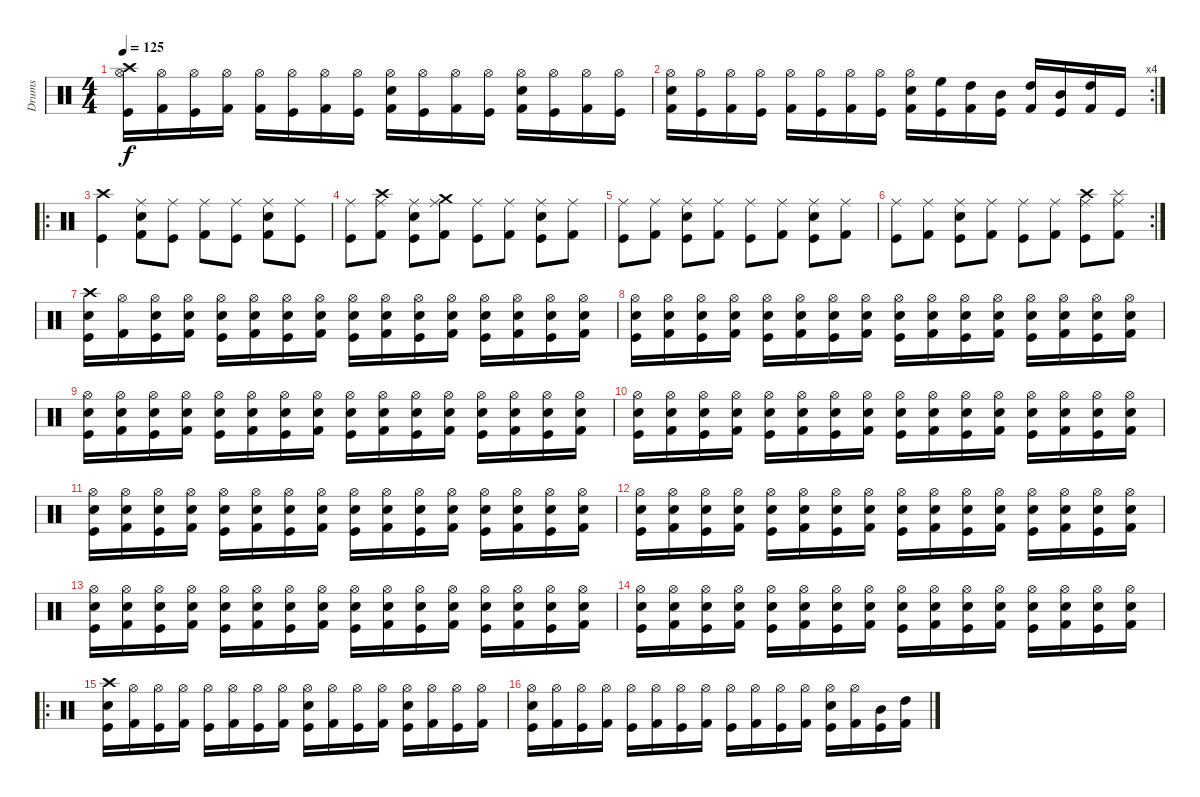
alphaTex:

\track ("Drums" "Drums") {instrument percussion}
\staff {score}
\articulation defaults
\ts (4 4)
\tempo 125
\clef neutral
\ks c
("Kick (hit)" "Hi-Hat (open)" "Crash high (hit)").16{dy f} ("Kick (hit) 2" "Hi-Hat (open)").16 ("Kick (hit)" "Hi-Hat (open)").16 ("Kick (hit) 2" "Hi-Hat (open)").16 ("Kick (hit) 2" "Hi-Hat (open)").16 ("Kick (hit)" "Hi-Hat (open)").16 ("Kick (hit) 2" "Hi-Hat (open)").16 ("Kick (hit)" "Hi-Hat (open)").16 ("Kick (hit) 2" "Hi-Hat (open)" "Electric Snare (hit)").16 ("Kick (hit)" "Hi-Hat (open)").16 ("Kick (hit) 2" "Hi-Hat (open)").16 ("Kick (hit)" "Hi-Hat (open)").16 ("Kick (hit) 2" "Hi-Hat (open)" "Electric Snare (hit)").16 ("Kick (hit)" "Hi-Hat (open)").16 ("Kick (hit) 2" "Hi-Hat (open)").16 ("Kick (hit)" "Hi-Hat (open)").16 |
\rc 4
("Kick (hit) 2" "Hi-Hat (open)" "Electric Snare (hit)").16 ("Kick (hit)" "Hi-Hat (open)").16 ("Kick (hit) 2" "Hi-Hat (open)").16 ("Kick (hit)" "Hi-Hat (open)").16 ("Kick (hit) 2" "Hi-Hat (open)").16 ("Kick (hit)" "Hi-Hat (open)").16 ("Kick (hit) 2" "Hi-Hat (open)").16 ("Kick (hit)" "Hi-Hat (open)").16 ("Kick (hit) 2" "Hi-Hat (open)" "Electric Snare (hit)").16 ("Kick (hit)" "High Floor Tom (hit)").16 ("Kick (hit) 2" "High Tom (hit)").16 ("Kick (hit)" "Mid Tom (hit)").16 ("Kick (hit) 2" "High Tom (hit)").16 ("Kick (hit)" "Mid Tom (hit)").16 ("Kick (hit) 2" "High Tom (hit)").16 "Kick (hit)".16 |
\ro
("Kick (hit)" "Crash high (hit)").4 ("Kick (hit) 2" "Ride (middle)" "Electric Snare (hit)").8 ("Kick (hit)" "Ride (middle)").8 ("Kick (hit) 2" "Ride (middle)").8 ("Kick (hit)" "Ride (middle)").8 ("Kick (hit) 2" "Ride (middle)" "Electric Snare (hit)").8 ("Kick (hit)" "Ride (middle)").8 |
("Kick (hit)" "Ride (middle)").8 ("Kick (hit) 2" "Ride (middle)" "Crash high (hit)").8 ("Kick (hit)" "Ride (middle)" "Electric Snare (hit)").8 ("Kick (hit) 2" "Ride (middle)" "Crash medium (hit)").8 ("Kick (hit)" "Ride (middle)").8 ("Kick (hit) 2" "Ride (middle)").8 ("Kick (hit)" "Ride (middle)" "Electric Snare (hit)").8 ("Kick (hit) 2" "Ride (middle)").8 |
("Kick (hit)" "Ride (middle)").8 ("Kick (hit) 2" "Ride (middle)").8 ("Kick (hit)" "Ride (middle)" "Electric Snare (hit)").8 ("Kick (hit) 2" "Ride (middle)").8 ("Kick (hit)" "Ride (middle)").8 ("Kick (hit) 2" "Ride (middle)").8 ("Kick (hit)" "Ride (middle)" "Electric Snare (hit)").8 ("Kick (hit) 2" "Ride (middle)").8 |
\rc 2
("Kick (hit)" "Ride (middle)").8 ("Kick (hit) 2" "Ride (middle)").8 ("Kick (hit)" "Ride (middle)" "Electric Snare (hit)").8 ("Kick (hit) 2" "Ride (middle)").8 ("Kick (hit)" "Ride (middle)").8 ("Kick (hit) 2" "Ride (middle)").8 ("Kick (hit)" "Ride (middle)" "Crash high (hit)").8 ("Kick (hit) 2" "Ride (middle)" "Splash (hit)").8 |
("Kick (hit)" "Crash high (hit)" "Electric Snare (hit)").16 ("Kick (hit) 2" "Hi-Hat (open)").16 ("Kick (hit)" "Hi-Hat (open)" "Electric Snare (hit)").16 ("Kick (hit) 2" "Hi-Hat (open)" "Electric Snare (hit)").16 ("Kick (hit)" "Hi-Hat (open)" "Electric Snare (hit)").16 ("Kick (hit) 2" "Hi-Hat (open)" "Electric Snare (hit)").16 ("Kick (hit)" "Hi-Hat (open)" "Electric Snare (hit)").16 ("Kick (hit) 2" "Hi-Hat (open)" "Electric Snare (hit)").16 ("Kick (hit)" "Hi-Hat (open)" "Electric Snare (hit)").16 ("Kick (hit) 2" "Hi-Hat (open)" "Electric Snare (hit)").16 ("Kick (hit)" "Hi-Hat (open)" "Electric Snare (hit)").16 ("Kick (hit) 2" "Hi-Hat (open)" "Electric Snare (hit)").16 ("Kick (hit)" "Hi-Hat (open)" "Electric Snare (hit)").16 ("Kick (hit) 2" "Hi-Hat (open)" "Electric Snare (hit)").16 ("Kick (hit)" "Hi-Hat (open)" "Electric Snare (hit)").16 ("Kick (hit) 2" "Hi-Hat (open)" "Electric Snare (hit)").16 |
("Kick (hit)" "Hi-Hat (open)" "Electric Snare (hit)").16 ("Kick (hit) 2" "Hi-Hat (open)" "Electric Snare (hit)").16 ("Kick (hit)" "Hi-Hat (open)" "Electric Snare (hit)").16 ("Kick (hit) 2" "Hi-Hat (open)" "Electric Snare (hit)").16 ("Kick (hit)" "Hi-Hat (open)" "Electric Snare (hit)").16 ("Kick (hit) 2" "Hi-Hat (open)" "Electric Snare (hit)").16 ("Kick (hit)" "Hi-Hat (open)" "Electric Snare (hit)").16 ("Kick (hit) 2" "Hi-Hat (open)" "Electric Snare (hit)").16 ("Kick (hit)" "Hi-Hat (open)" "Electric Snare (hit)").16 ("Kick (hit) 2" "Hi-Hat (open)" "Electric Snare (hit)").16 ("Kick (hit)" "Hi-Hat (open)" "Electric Snare (hit)").16 ("Kick (hit) 2" "Hi-Hat (open)" "Electric Snare (hit)").16 ("Kick (hit)" "Hi-Hat (open)" "Electric Snare (hit)").16 ("Kick (hit) 2" "Hi-Hat (open)" "Electric Snare (hit)").16 ("Kick (hit)" "Hi-Hat (open)" "Electric Snare (hit)").16 ("Kick (hit) 2" "Hi-Hat (open)" "Electric Snare (hit)").16 |
("Kick (hit)" "Hi-Hat (open)" "Electric Snare (hit)").16 ("Kick (hit) 2" "Hi-Hat (open)" "Electric Snare (hit)").16 ("Kick (hit)" "Hi-Hat (open)" "Electric Snare (hit)").16 ("Kick (hit) 2" "Hi-Hat (open)" "Electric Snare (hit)").16 ("Kick (hit)" "Hi-Hat (open)" "Electric Snare (hit)").16 ("Kick (hit) 2" "Hi-Hat (open)" "Electric Snare (hit)").16 ("Kick (hit)" "Hi-Hat (open)" "Electric Snare (hit)").16 ("Kick (hit) 2" "Hi-Hat (open)" "Electric Snare (hit)").16 ("Kick (hit)" "Hi-Hat (open)" "Electric Snare (hit)").16 ("Kick (hit) 2" "Hi-Hat (open)" "Electric Snare (hit)").16 ("Kick (hit)" "Hi-Hat (open)" "Electric Snare (hit)").16 ("Kick (hit) 2" "Hi-Hat (open)" "Electric Snare (hit)").16 ("Kick (hit)" "Hi-Hat (open)" "Electric Snare (hit)").16 ("Kick (hit) 2" "Hi-Hat (open)" "Electric Snare (hit)").16 ("Kick (hit)" "Hi-Hat (open)" "Electric Snare (hit)").16 ("Kick (hit) 2" "Hi-Hat (open)" "Electric Snare (hit)").16 |
("Kick (hit)" "Hi-Hat (open)" "Electric Snare (hit)").16 ("Kick (hit) 2" "Hi-Hat (open)" "Electric Snare (hit)").16 ("Kick (hit)" "Hi-Hat (open)" "Electric Snare (hit)").16 ("Kick (hit) 2" "Hi-Hat (open)" "Electric Snare (hit)").16 ("Kick (hit)" "Hi-Hat (open)" "Electric Snare (hit)").16 ("Kick (hit) 2" "Hi-Hat (open)" "Electric Snare (hit)").16 ("Kick (hit)" "Hi-Hat (open)" "Electric Snare (hit)").16 ("Kick (hit) 2" "Hi-Hat (open)" "Electric Snare (hit)").16 ("Kick (hit)" "Hi-Hat (open)" "Electric Snare (hit)").16 ("Kick (hit) 2" "Hi-Hat (open)" "Electric Snare (hit)").16 ("Kick (hit)" "Hi-Hat (open)" "Electric Snare (hit)").16 ("Kick (hit) 2" "Hi-Hat (open)" "Electric Snare (hit)").16 ("Kick (hit)" "Hi-Hat (open)" "Electric Snare (hit)").16 ("Kick (hit) 2" "Hi-Hat (open)" "Electric Snare (hit)").16 ("Kick (hit)" "Hi-Hat (open)" "Electric Snare (hit)").16 ("Kick (hit) 2" "Hi-Hat (open)" "Electric Snare (hit)").16 |
("Kick (hit)" "Hi-Hat (open)" "Electric Snare (hit)").16 ("Kick (hit) 2" "Hi-Hat (open)" "Electric Snare (hit)").16 ("Kick (hit)" "Hi-Hat (open)" "Electric Snare (hit)").16 ("Kick (hit) 2" "Hi-Hat (open)" "Electric Snare (hit)").16 ("Kick (hit)" "Hi-Hat (open)" "Electric Snare (hit)").16 ("Kick (hit) 2" "Hi-Hat (open)" "Electric Snare (hit)").16 ("Kick (hit)" "Hi-Hat (open)" "Electric Snare (hit)").16 ("Kick (hit) 2" "Hi-Hat (open)" "Electric Snare (hit)").16 ("Kick (hit)" "Hi-Hat (open)" "Electric Snare (hit)").16 ("Kick (hit) 2" "Hi-Hat (open)" "Electric Snare (hit)").16 ("Kick (hit)" "Hi-Hat (open)" "Electric Snare (hit)").16 ("Kick (hit) 2" "Hi-Hat (open)" "Electric Snare (hit)").16 ("Kick (hit)" "Hi-Hat (open)" "Electric Snare (hit)").16 ("Kick (hit) 2" "Hi-Hat (open)" "Electric Snare (hit)").16 ("Kick (hit)" "Hi-Hat (open)" "Electric Snare (hit)").16 ("Kick (hit) 2" "Hi-Hat (open)" "Electric Snare (hit)").16 |
("Kick (hit)" "Hi-Hat (open)" "Electric Snare (hit)").16 ("Kick (hit) 2" "Hi-Hat (open)" "Electric Snare (hit)").16 ("Kick (hit)" "Hi-Hat (open)" "Electric Snare (hit)").16 ("Kick (hit) 2" "Hi-Hat (open)" "Electric Snare (hit)").16 ("Kick (hit)" "Hi-Hat (open)" "Electric Snare (hit)").16 ("Kick (hit) 2" "Hi-Hat (open)" "Electric Snare (hit)").16 ("Kick (hit)" "Hi-Hat (open)" "Electric Snare (hit)").16 ("Kick (hit) 2" "Hi-Hat (open)" "Electric Snare (hit)").16 ("Kick (hit)" "Hi-Hat (open)" "Electric Snare (hit)").16 ("Kick (hit) 2" "Hi-Hat (open)" "Electric Snare (hit)").16 ("Kick (hit)" "Hi-Hat (open)" "Electric Snare (hit)").16 ("Kick (hit) 2" "Hi-Hat (open)" "Electric Snare (hit)").16 ("Kick (hit)" "Hi-Hat (open)" "Electric Snare (hit)").16 ("Kick (hit) 2" "Hi-Hat (open)" "Electric Snare (hit)").16 ("Kick (hit)" "Hi-Hat (open)" "Electric Snare (hit)").16 ("Kick (hit) 2" "Hi-Hat (open)" "Electric Snare (hit)").16 |
("Kick (hit)" "Hi-Hat (open)" "Electric Snare (hit)").16 ("Kick (hit) 2" "Hi-Hat (open)" "Electric Snare (hit)").16 ("Kick (hit)" "Hi-Hat (open)" "Electric Snare (hit)").16 ("Kick (hit) 2" "Hi-Hat (open)" "Electric Snare (hit)").16 ("Kick (hit)" "Hi-Hat (open)" "Electric Snare (hit)").16 ("Kick (hit) 2" "Hi-Hat (open)" "Electric Snare (hit)").16 ("Kick (hit)" "Hi-Hat (open)" "Electric Snare (hit)").16 ("Kick (hit) 2" "Hi-Hat (open)" "Electric Snare (hit)").16 ("Kick (hit)" "Hi-Hat (open)" "Electric Snare (hit)").16 ("Kick (hit) 2" "Hi-Hat (open)" "Electric Snare (hit)").16 ("Kick (hit)" "Hi-Hat (open)" "Electric Snare (hit)").16 ("Kick (hit) 2" "Hi-Hat (open)" "Electric Snare (hit)").16 ("Kick (hit)" "Hi-Hat (open)" "Electric Snare (hit)").16 ("Kick (hit) 2" "Hi-Hat (open)" "Electric Snare (hit)").16 ("Kick (hit)" "Hi-Hat (open)" "Electric Snare (hit)").16 ("Kick (hit) 2" "Hi-Hat (open)" "Electric Snare (hit)").16 |
("Kick (hit)" "Hi-Hat (open)" "Electric Snare (hit)").16 ("Kick (hit) 2" "Hi-Hat (open)" "Electric Snare (hit)").16 ("Kick (hit)" "Hi-Hat (open)" "Electric Snare (hit)").16 ("Kick (hit) 2" "Hi-Hat (open)" "Electric Snare (hit)").16 ("Kick (hit)" "Hi-Hat (open)" "Electric Snare (hit)").16 ("Kick (hit) 2" "Hi-Hat (open)" "Electric Snare (hit)").16 ("Kick (hit)" "Hi-Hat (open)" "Electric Snare (hit)").16 ("Kick (hit) 2" "Hi-Hat (open)" "Electric Snare (hit)").16 ("Kick (hit)" "Hi-Hat (open)" "Electric Snare (hit)").16 ("Kick (hit) 2" "Hi-Hat (open)" "Electric Snare (hit)").16 ("Kick (hit)" "Hi-Hat (open)" "Electric Snare (hit)").16 ("Kick (hit) 2" "Hi-Hat (open)" "Electric Snare (hit)").16 ("Kick (hit)" "Hi-Hat (open)" "Electric Snare (hit)").16 ("Kick (hit) 2" "Hi-Hat (open)" "Electric Snare (hit)").16 ("Kick (hit)" "Hi-Hat (open)" "Electric Snare (hit)").16 ("Kick (hit) 2" "Hi-Hat (open)" "Electric Snare (hit)").16 |
\ro
("Kick (hit)" "Crash high (hit)" "Electric Snare (hit)").16 ("Kick (hit) 2" "Hi-Hat (open)").16 ("Kick (hit)" "Hi-Hat (open)").16 ("Kick (hit) 2" "Hi-Hat (open)").16 ("Kick (hit)" "Hi-Hat (open)").16 ("Kick (hit) 2" "Hi-Hat (open)").16 ("Kick (hit)" "Hi-Hat (open)").16 ("Kick (hit) 2" "Hi-Hat (open)").16 ("Kick (hit)" "Hi-Hat (open)" "Electric Snare (hit)").16 ("Kick (hit) 2" "Hi-Hat (open)").16 ("Kick (hit)" "Hi-Hat (open)").16 ("Kick (hit) 2" "Hi-Hat (open)").16 ("Kick (hit)" "Hi-Hat (open)" "Electric Snare (hit)").16 ("Kick (hit) 2" "Hi-Hat (open)").16 ("Kick (hit)" "Hi-Hat (open)").16 ("Kick (hit) 2" "Hi-Hat (open)").16 |
("Kick (hit)" "Hi-Hat (open)" "Electric Snare (hit)").16 ("Kick (hit) 2" "Hi-Hat (open)").16 ("Kick (hit)" "Hi-Hat (open)").16 ("Kick (hit) 2" "Hi-Hat (open)").16 ("Kick (hit)" "Hi-Hat (open)").16 ("Kick (hit) 2" "Hi-Hat (open)").16 ("Kick (hit)" "Hi-Hat (open)").16 ("Kick (hit) 2" "Hi-Hat (open)").16 ("Kick (hit)" "Hi-Hat (open)").16 ("Kick (hit) 2" "Hi-Hat (open)").16 ("Kick (hit)" "Hi-Hat (open)").16 ("Kick (hit) 2" "Hi-Hat (open)").16 ("Kick (hit)" "Hi-Hat (open)" "Electric Snare (hit)").16 ("Kick (hit) 2" "Hi-Hat (open)").16 ("Kick (hit)" "Mid Tom (hit)").16 ("Kick (hit) 2" "High Tom (hit)").16
